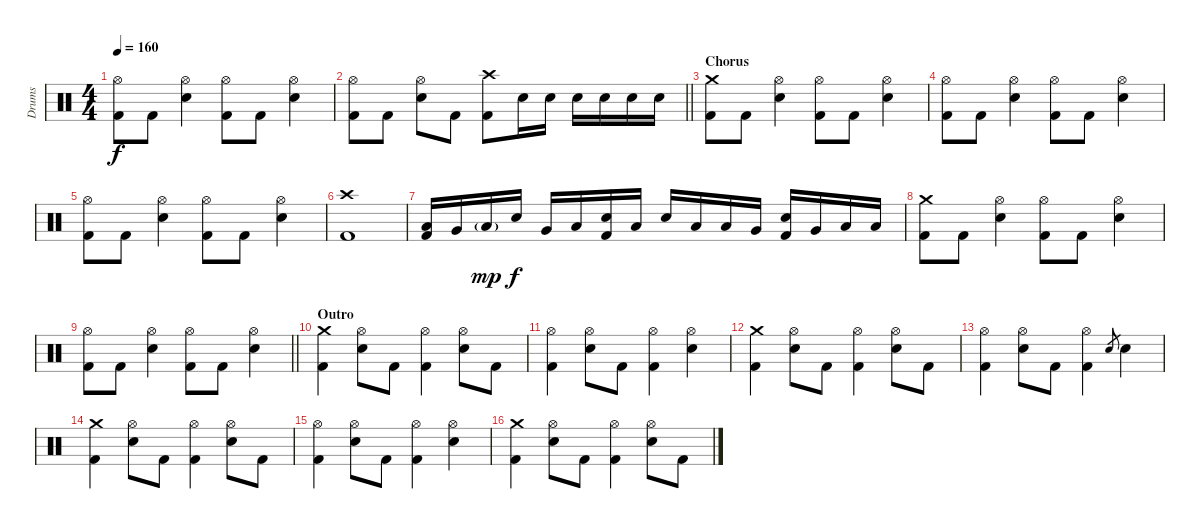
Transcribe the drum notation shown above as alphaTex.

\track ("Drums" "Drums") {instrument percussion}
\staff {score}
\articulation defaults
\ts (4 4)
\tempo 160
\clef neutral
\ks c
("Hi-Hat (open)" "Kick (hit) 2").8{dy f} "Kick (hit) 2".8 ("Hi-Hat (open)" "Electric Snare (hit)").4 ("Hi-Hat (open)" "Kick (hit) 2").8 "Kick (hit) 2".8 ("Hi-Hat (open)" "Electric Snare (hit)").4 |
\barLineRight lightlight
("Hi-Hat (open)" "Kick (hit) 2").8 "Kick (hit) 2".8 ("Hi-Hat (open)" "Electric Snare (hit)").8 "Kick (hit) 2".8 ("Crash high (hit)" "Kick (hit) 2").8 "Electric Snare (hit)".16 "Electric Snare (hit)".16 "Electric Snare (hit)".16 "Electric Snare (hit)".16 "Electric Snare (hit)".16 "Electric Snare (hit)".16 |
\section ("" "Chorus")
("Crash medium (hit)" "Kick (hit) 2").8 "Kick (hit) 2".8 ("Hi-Hat (open)" "Electric Snare (hit)").4 ("Hi-Hat (open)" "Kick (hit) 2").8 "Kick (hit) 2".8 ("Hi-Hat (open)" "Electric Snare (hit)").4 |
("Hi-Hat (open)" "Kick (hit) 2").8 "Kick (hit) 2".8 ("Hi-Hat (open)" "Electric Snare (hit)").4 ("Hi-Hat (open)" "Kick (hit) 2").8 "Kick (hit) 2".8 ("Hi-Hat (open)" "Electric Snare (hit)").4 |
("Hi-Hat (open)" "Kick (hit) 2").8 "Kick (hit) 2".8 ("Hi-Hat (open)" "Electric Snare (hit)").4 ("Hi-Hat (open)" "Kick (hit) 2").8 "Kick (hit) 2".8 ("Hi-Hat (open)" "Electric Snare (hit)").4 |
("Crash high (hit)" "Kick (hit) 2").1 |
("Low Tom (hit)" "Kick (hit) 2").16 "Very Low Tom (hit)".16 "Low Floor Tom (hit)"{g}.16{dy mp} "Electric Snare (hit)".16{dy f} "Very Low Tom (hit)".16 "Low Floor Tom (hit)".16 ("Electric Snare (hit)" "Kick (hit) 2").16 "Low Tom (hit)".16 "Electric Snare (hit)".16 "Low Tom (hit)".16 "Low Floor Tom (hit)".16 "Very Low Tom (hit)".16 ("Electric Snare (hit)" "Kick (hit) 2").16 "Very Low Tom (hit)".16 "Low Floor Tom (hit)".16 "Low Floor Tom (hit)".16 |
("Crash medium (hit)" "Kick (hit) 2").8 "Kick (hit) 2".8 ("Hi-Hat (open)" "Electric Snare (hit)").4 ("Hi-Hat (open)" "Kick (hit) 2").8 "Kick (hit) 2".8 ("Hi-Hat (open)" "Electric Snare (hit)").4 |
\barLineRight lightlight
("Hi-Hat (open)" "Kick (hit) 2").8 "Kick (hit) 2".8 ("Hi-Hat (open)" "Electric Snare (hit)").4 ("Hi-Hat (open)" "Kick (hit) 2").8 "Kick (hit) 2".8 ("Hi-Hat (open)" "Electric Snare (hit)").4 |
\section ("" "Outro")
("Crash medium (hit)" "Kick (hit) 2").4 ("Hi-Hat (open)" "Electric Snare (hit)").8 "Kick (hit) 2".8 ("Hi-Hat (open)" "Kick (hit) 2").4 ("Hi-Hat (open)" "Electric Snare (hit)").8 "Kick (hit) 2".8 |
("Hi-Hat (open)" "Kick (hit) 2").4 ("Hi-Hat (open)" "Electric Snare (hit)").8 "Kick (hit) 2".8 ("Hi-Hat (open)" "Kick (hit) 2").4 ("Hi-Hat (open)" "Electric Snare (hit)").4 |
("Crash medium (hit)" "Kick (hit) 2").4 ("Hi-Hat (open)" "Electric Snare (hit)").8 "Kick (hit) 2".8 ("Hi-Hat (open)" "Kick (hit) 2").4 ("Hi-Hat (open)" "Electric Snare (hit)").8 "Kick (hit) 2".8 |
("Hi-Hat (open)" "Kick (hit) 2").4 ("Hi-Hat (open)" "Electric Snare (hit)").8 "Kick (hit) 2".8 ("Hi-Hat (open)" "Kick (hit) 2").4 "Electric Snare (hit)".8{gr} "Electric Snare (hit)".4 |
("Crash medium (hit)" "Kick (hit) 2").4 ("Hi-Hat (open)" "Electric Snare (hit)").8 "Kick (hit) 2".8 ("Hi-Hat (open)" "Kick (hit) 2").4 ("Hi-Hat (open)" "Electric Snare (hit)").8 "Kick (hit) 2".8 |
("Hi-Hat (open)" "Kick (hit) 2").4 ("Hi-Hat (open)" "Electric Snare (hit)").8 "Kick (hit) 2".8 ("Hi-Hat (open)" "Kick (hit) 2").4 ("Hi-Hat (open)" "Electric Snare (hit)").4 |
("Crash medium (hit)" "Kick (hit) 2").4 ("Hi-Hat (open)" "Electric Snare (hit)").8 "Kick (hit) 2".8 ("Hi-Hat (open)" "Kick (hit) 2").4 ("Hi-Hat (open)" "Electric Snare (hit)").8 "Kick (hit) 2".8
